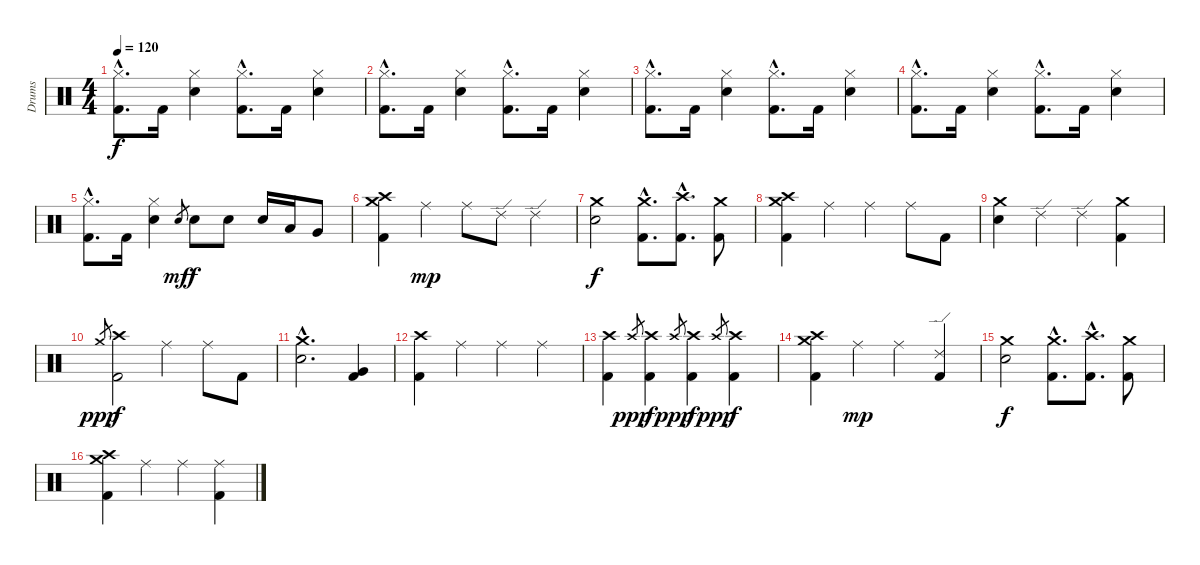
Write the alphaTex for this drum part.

\track ("Drums" "Drums") {instrument percussion}
\staff {score}
\articulation defaults
\ts (4 4)
\tempo 120
\clef neutral
\ks c
("Hi-Hat (closed)"{hac} "Kick (hit) 2"{hac}).8{d dy f} "Kick (hit) 2".16 ("Hi-Hat (closed)" "Snare (hit) 2").4 ("Hi-Hat (closed)"{hac} "Kick (hit) 2"{hac}).8{d} "Kick (hit) 2".16 ("Hi-Hat (closed)" "Snare (hit) 2").4 |
("Hi-Hat (closed)"{hac} "Kick (hit) 2"{hac}).8{d} "Kick (hit) 2".16 ("Hi-Hat (closed)" "Snare (hit) 2").4 ("Hi-Hat (closed)"{hac} "Kick (hit) 2"{hac}).8{d} "Kick (hit) 2".16 ("Hi-Hat (closed)" "Snare (hit) 2").4 |
("Hi-Hat (closed)"{hac} "Kick (hit) 2"{hac}).8{d} "Kick (hit) 2".16 ("Hi-Hat (closed)" "Snare (hit) 2").4 ("Hi-Hat (closed)"{hac} "Kick (hit) 2"{hac}).8{d} "Kick (hit) 2".16 ("Hi-Hat (closed)" "Snare (hit) 2").4 |
("Hi-Hat (closed)"{hac} "Kick (hit) 2"{hac}).8{d} "Kick (hit) 2".16 ("Hi-Hat (closed)" "Snare (hit) 2").4 ("Hi-Hat (closed)"{hac} "Kick (hit) 2"{hac}).8{d} "Kick (hit) 2".16 ("Hi-Hat (closed)" "Snare (hit) 2").4 |
("Hi-Hat (closed)"{hac} "Kick (hit) 2"{hac}).8{d} "Kick (hit) 2".16 ("Hi-Hat (closed)" "Snare (hit) 2").4 "Snare (hit) 2".8{gr dy mf} "Snare (hit) 2".8{dy f} "Snare (hit) 2".8 "Snare (hit) 2".16 "Low Tom (hit)".16 "Very Low Tom (hit)".8 |
("Crash high (hit)" "Crash medium (hit)" "Kick (hit) 2").4 "Ride (middle)".4{dy mp} "Ride (middle)".8 "Ride (edge) 2".8 "Ride (edge) 2".4 |
("Crash medium (hit)" "Snare (hit) 2").2{dy f} ("Crash medium (hit)"{hac} "Kick (hit) 2"{hac}).8{d} ("Crash high (hit)"{hac} "Kick (hit) 2"{hac}).8{d} ("Crash medium (hit)" "Kick (hit) 2").8 |
("Crash high (hit)" "Crash medium (hit)" "Kick (hit) 2").4 "Ride (middle)".4 "Ride (middle)".4 "Ride (middle)".8 "Kick (hit) 2".8 |
("Crash medium (hit)" "Snare (hit) 2").4 "Ride (edge) 2".4 "Ride (edge) 2".4 ("Crash medium (hit)" "Kick (hit) 2").4 |
"Crash medium (hit)".8{gr dy ppp} ("Crash high (hit)" "Kick (hit) 2").2{dy f} "Ride (middle)".4 "Ride (middle)".8 "Kick (hit) 2".8 |
("Crash medium (hit)"{hac} "Snare (hit) 2"{hac}).2{d} ("Very Low Tom (hit)" "Kick (hit) 2").4 |
("Crash high (hit)" "Kick (hit) 2").4 "Ride (middle)".4 "Ride (middle)".4 "Ride (middle)".4 |
("Crash high (hit)" "Kick (hit) 2").4 "Crash high (hit)".8{gr dy ppp} ("Crash high (hit)" "Kick (hit) 2").4{dy f} "Crash high (hit)".8{gr dy ppp} ("Crash high (hit)" "Kick (hit) 2").4{dy f} "Crash high (hit)".8{gr dy ppp} ("Crash high (hit)" "Kick (hit) 2").4{dy f} |
("Crash high (hit)" "Crash medium (hit)" "Kick (hit) 2").4 "Ride (middle)".4{dy mp} "Ride (middle)".4 ("Ride (edge) 2" "Kick (hit) 2").4 |
("Crash medium (hit)" "Snare (hit) 2").2{dy f} ("Crash medium (hit)"{hac} "Kick (hit) 2"{hac}).8{d} ("Crash high (hit)"{hac} "Kick (hit) 2"{hac}).8{d} ("Crash medium (hit)" "Kick (hit) 2").8 |
("Crash high (hit)" "Crash medium (hit)" "Kick (hit) 2").4 "Ride (middle)".4 "Ride (middle)".4 ("Ride (middle)" "Kick (hit) 2").4
